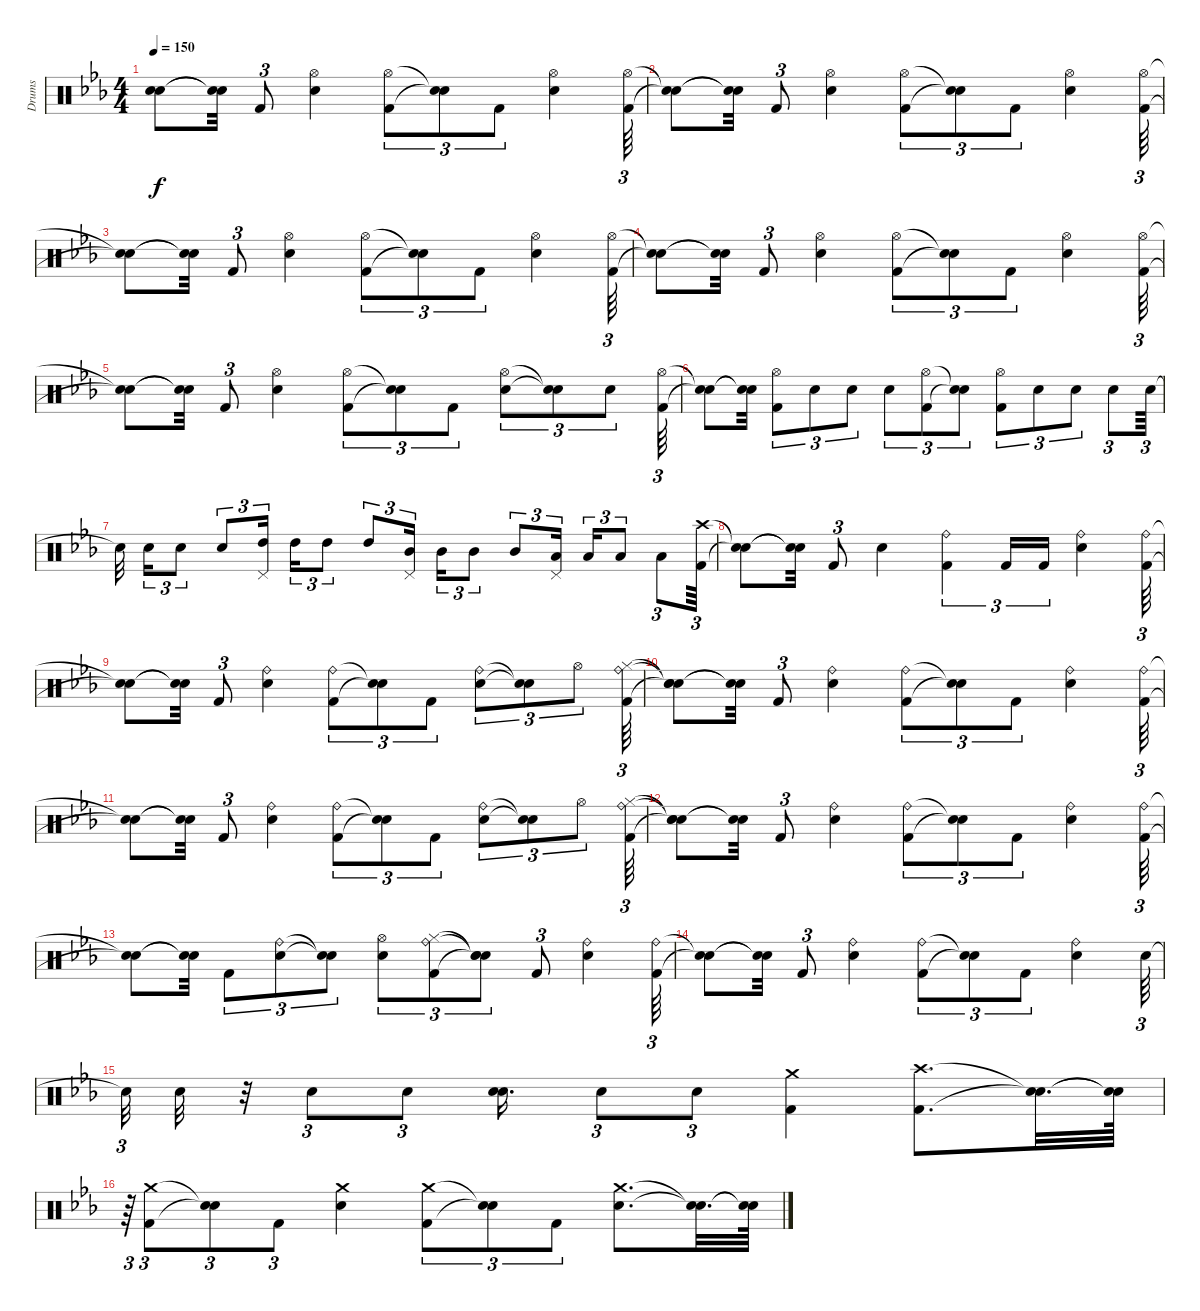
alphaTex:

\track ("Drums" "Drums") {instrument percussion}
\staff {score}
\articulation defaults
\ts (4 4)
\tempo 150
\clef neutral
\ks cminor
("Snare (hit)"{t} "Snare (hit)"{t}).8{dy f} ("Snare (hit)"{t} "Snare (hit)"{t}).32 "Kick (hit) 2".8{tu (3 2)} ("Electric Snare (hit)" "Hi-Hat (open)").4 ("Kick (hit) 2" "Hi-Hat (open)").8{tu (3 2)} ("Snare (hit)"{t} "Snare (hit)"{t}).8{tu (3 2)} "Kick (hit) 2".8{tu (3 2)} ("Electric Snare (hit)" "Hi-Hat (open)").4 ("Kick (hit) 2" "Hi-Hat (open)").64{tu (3 2)} |
("Snare (hit)"{t} "Snare (hit)"{t}).8 ("Snare (hit)"{t} "Snare (hit)"{t}).32 "Kick (hit) 2".8{tu (3 2)} ("Electric Snare (hit)" "Hi-Hat (open)").4 ("Kick (hit) 2" "Hi-Hat (open)").8{tu (3 2)} ("Snare (hit)"{t} "Snare (hit)"{t}).8{tu (3 2)} "Kick (hit) 2".8{tu (3 2)} ("Electric Snare (hit)" "Hi-Hat (open)").4 ("Kick (hit) 2" "Hi-Hat (open)").64{tu (3 2)} |
("Snare (hit)"{t} "Snare (hit)"{t}).8 ("Snare (hit)"{t} "Snare (hit)"{t}).32 "Kick (hit) 2".8{tu (3 2)} ("Electric Snare (hit)" "Hi-Hat (open)").4 ("Kick (hit) 2" "Hi-Hat (open)").8{tu (3 2)} ("Snare (hit)"{t} "Snare (hit)"{t}).8{tu (3 2)} "Kick (hit) 2".8{tu (3 2)} ("Electric Snare (hit)" "Hi-Hat (open)").4 ("Hi-Hat (open)" "Kick (hit) 2").64{tu (3 2)} |
("Snare (hit)"{t} "Snare (hit)"{t}).8 ("Snare (hit)"{t} "Snare (hit)"{t}).32 "Kick (hit) 2".8{tu (3 2)} ("Electric Snare (hit)" "Hi-Hat (open)").4 ("Kick (hit) 2" "Hi-Hat (open)").8{tu (3 2)} ("Snare (hit)"{t} "Snare (hit)"{t}).8{tu (3 2)} "Kick (hit) 2".8{tu (3 2)} ("Electric Snare (hit)" "Hi-Hat (open)").4 ("Kick (hit) 2" "Hi-Hat (open)").64{tu (3 2)} |
("Snare (hit)"{t} "Snare (hit)"{t}).8 ("Snare (hit)"{t} "Snare (hit)"{t}).32 "Kick (hit) 2".8{tu (3 2)} ("Electric Snare (hit)" "Hi-Hat (open)").4 ("Kick (hit) 2" "Hi-Hat (open)").8{tu (3 2)} ("Snare (hit)"{t} "Snare (hit)"{t}).8{tu (3 2)} "Kick (hit) 2".8{tu (3 2)} ("Hi-Hat (open)" "Electric Snare (hit)").8{tu (3 2)} ("Snare (hit)"{t} "Snare (hit)"{t}).8{tu (3 2)} "Electric Snare (hit)".8{tu (3 2)} ("Kick (hit) 2" "Hi-Hat (open)").64{tu (3 2)} |
("Snare (hit)"{t} "Snare (hit)"{t}).8 ("Snare (hit)"{t} "Snare (hit)"{t}).32 ("Kick (hit) 2" "Hi-Hat (open)").8{tu (3 2)} "Electric Snare (hit)".8{tu (3 2)} "Electric Snare (hit)".8{tu (3 2)} "Electric Snare (hit)".8{tu (3 2)} ("Kick (hit) 2" "Hi-Hat (open)").8{tu (3 2)} ("Snare (hit)"{t} "Snare (hit)"{t}).8{tu (3 2)} ("Kick (hit) 2" "Hi-Hat (open)").8{tu (3 2)} "Electric Snare (hit)".8{tu (3 2)} "Electric Snare (hit)".8{tu (3 2)} "Electric Snare (hit)".8{tu (3 2)} "Electric Snare (hit)".64{tu (3 2)} |
"Snare (hit)"{t}.32{beam splitsecondary} "Electric Snare (hit)".16{tu (3 2)} "Electric Snare (hit)".8{tu (3 2)} "Electric Snare (hit)".8{tu (3 2)} ("Pedal Hi-Hat (hit)" "High Tom (hit)").16{tu (3 2)} "High Tom (hit)".16{tu (3 2)} "High Tom (hit)".8{tu (3 2)} "High Tom (hit)".8{tu (3 2)} ("Pedal Hi-Hat (hit)" "Mid Tom (hit)").16{tu (3 2)} "Mid Tom (hit)".16{tu (3 2)} "Mid Tom (hit)".8{tu (3 2)} "Mid Tom (hit)".8{tu (3 2)} ("Pedal Hi-Hat (hit)" "Low Tom (hit)").16{tu (3 2)} "Low Tom (hit)".16{tu (3 2)} "Low Tom (hit)".8{tu (3 2)} "Low Tom (hit)".8{tu (3 2)} ("Kick (hit) 2" "Crash high (hit)").64{tu (3 2)} |
("Snare (hit)"{t} "Snare (hit)"{t}).8 ("Snare (hit)"{t} "Snare (hit)"{t}).32 "Kick (hit) 2".8{tu (3 2)} "Electric Snare (hit)".4 ("Kick (hit) 2" "Ride (bell)").4{tu (3 2)} "Kick (hit) 2".16{tu (3 2)} "Kick (hit) 2".16{tu (3 2)} ("Ride (bell)" "Electric Snare (hit)").4 ("Kick (hit) 2" "Ride (bell)").64{tu (3 2)} |
("Snare (hit)"{t} "Snare (hit)"{t}).8 ("Snare (hit)"{t} "Snare (hit)"{t}).32 "Kick (hit) 2".8{tu (3 2)} ("Electric Snare (hit)" "Ride (bell)").4 ("Kick (hit) 2" "Ride (bell)").8{tu (3 2)} ("Snare (hit)"{t} "Snare (hit)"{t}).8{tu (3 2)} "Kick (hit) 2".8{tu (3 2)} ("Ride (bell)" "Electric Snare (hit)").8{tu (3 2)} ("Snare (hit)"{t} "Snare (hit)"{t}).8{tu (3 2)} "Hi-Hat (open)".8{tu (3 2)} ("Hi-Hat (closed)" "Ride (bell)" "Kick (hit) 2").64{tu (3 2)} |
("Snare (hit)"{t} "Snare (hit)"{t} "Snare (hit)"{t}).8 ("Snare (hit)"{t} "Snare (hit)"{t}).32 "Kick (hit) 2".8{tu (3 2)} ("Electric Snare (hit)" "Ride (bell)").4 ("Kick (hit) 2" "Ride (bell)").8{tu (3 2)} ("Snare (hit)"{t} "Snare (hit)"{t}).8{tu (3 2)} "Kick (hit) 2".8{tu (3 2)} ("Ride (bell)" "Electric Snare (hit)").4 ("Ride (bell)" "Kick (hit) 2").64{tu (3 2)} |
("Snare (hit)"{t} "Snare (hit)"{t}).8 ("Snare (hit)"{t} "Snare (hit)"{t}).32 "Kick (hit) 2".8{tu (3 2)} ("Electric Snare (hit)" "Ride (bell)").4 ("Kick (hit) 2" "Ride (bell)").8{tu (3 2)} ("Snare (hit)"{t} "Snare (hit)"{t}).8{tu (3 2)} "Kick (hit) 2".8{tu (3 2)} ("Ride (bell)" "Electric Snare (hit)").8{tu (3 2)} ("Snare (hit)"{t} "Snare (hit)"{t}).8{tu (3 2)} "Hi-Hat (open)".8{tu (3 2)} ("Kick (hit) 2" "Ride (bell)" "Hi-Hat (closed)").64{tu (3 2)} |
("Snare (hit)"{t} "Snare (hit)"{t} "Snare (hit)"{t}).8 ("Snare (hit)"{t} "Snare (hit)"{t}).32 "Kick (hit) 2".8{tu (3 2)} ("Electric Snare (hit)" "Ride (bell)").4 ("Kick (hit) 2" "Ride (bell)").8{tu (3 2)} ("Snare (hit)"{t} "Snare (hit)"{t}).8{tu (3 2)} "Kick (hit) 2".8{tu (3 2)} ("Ride (bell)" "Electric Snare (hit)").4 ("Ride (bell)" "Kick (hit) 2").64{tu (3 2)} |
("Snare (hit)"{t} "Snare (hit)"{t}).8 ("Snare (hit)"{t} "Snare (hit)"{t}).32 "Kick (hit) 2".8{tu (3 2)} ("Ride (bell)" "Electric Snare (hit)").8{tu (3 2)} ("Snare (hit)"{t} "Snare (hit)"{t}).8{tu (3 2)} ("Electric Snare (hit)" "Hi-Hat (open)").8{tu (3 2)} ("Kick (hit) 2" "Ride (bell)" "Hi-Hat (closed)").8{tu (3 2)} ("Snare (hit)"{t} "Snare (hit)"{t} "Snare (hit)"{t}).8{tu (3 2)} "Kick (hit) 2".8{tu (3 2)} ("Ride (bell)" "Electric Snare (hit)").4 ("Ride (bell)" "Kick (hit) 2").64{tu (3 2)} |
("Snare (hit)"{t} "Snare (hit)"{t}).8 ("Snare (hit)"{t} "Snare (hit)"{t}).32 "Kick (hit) 2".8{tu (3 2)} ("Electric Snare (hit)" "Ride (bell)").4 ("Kick (hit) 2" "Ride (bell)").8{tu (3 2)} ("Snare (hit)"{t} "Snare (hit)"{t}).8{tu (3 2)} "Kick (hit) 2".8{tu (3 2)} ("Ride (bell)" "Electric Snare (hit)").4 "Electric Snare (hit)".64{tu (3 2)} |
"Snare (hit)"{t}.32{tu (3 2)} "Electric Snare (hit)".32 r.32 "Electric Snare (hit)".8{tu (3 2)} "Electric Snare (hit)".8{tu (3 2)} ("Electric Snare (hit)" "Electric Snare (hit)").16{d} "Electric Snare (hit)".8{tu (3 2)} "Electric Snare (hit)".8{tu (3 2)} ("Kick (hit) 2" "Crash medium (hit)").4 ("Crash high (hit)" "Kick (hit) 2").8{d} ("Snare (hit)"{t} "Snare (hit)"{t}).32{d} ("Snare (hit)"{t} "Snare (hit)"{t}).64 |
r.64{tu (3 2)} ("Kick (hit) 2" "Crash medium (hit)").8{tu (3 2)} ("Snare (hit)"{t} "Snare (hit)"{t}).8{tu (3 2)} "Kick (hit) 2".8{tu (3 2)} ("Electric Snare (hit)" "Crash medium (hit)").4 ("Kick (hit) 2" "Crash medium (hit)").8{tu (3 2)} ("Snare (hit)"{t} "Snare (hit)"{t}).8{tu (3 2)} "Kick (hit) 2".8{tu (3 2)} ("Electric Snare (hit)" "Crash medium (hit)").8{d} ("Snare (hit)"{t} "Snare (hit)"{t}).32{d} ("Snare (hit)"{t} "Snare (hit)"{t}).64
